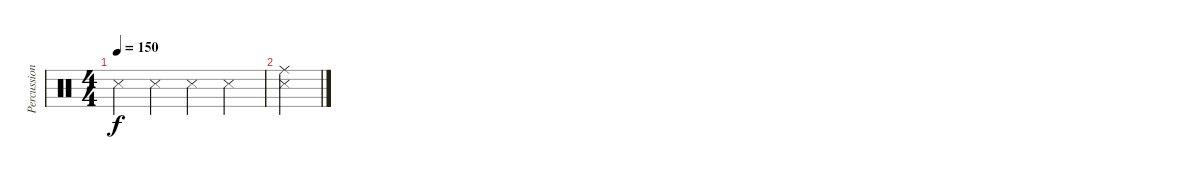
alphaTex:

\track ("Percussion" "Percussion") {instrument percussion}
\staff {score}
\articulation defaults
\ts (4 4)
\tempo 150
\clef neutral
\ks c "Metronome (hit)".4{dy f} "Metronome (hit)".4 "Metronome (hit)".4 "Metronome (hit)".4
|
("Metronome (hit)" "Ride (middle)").4
